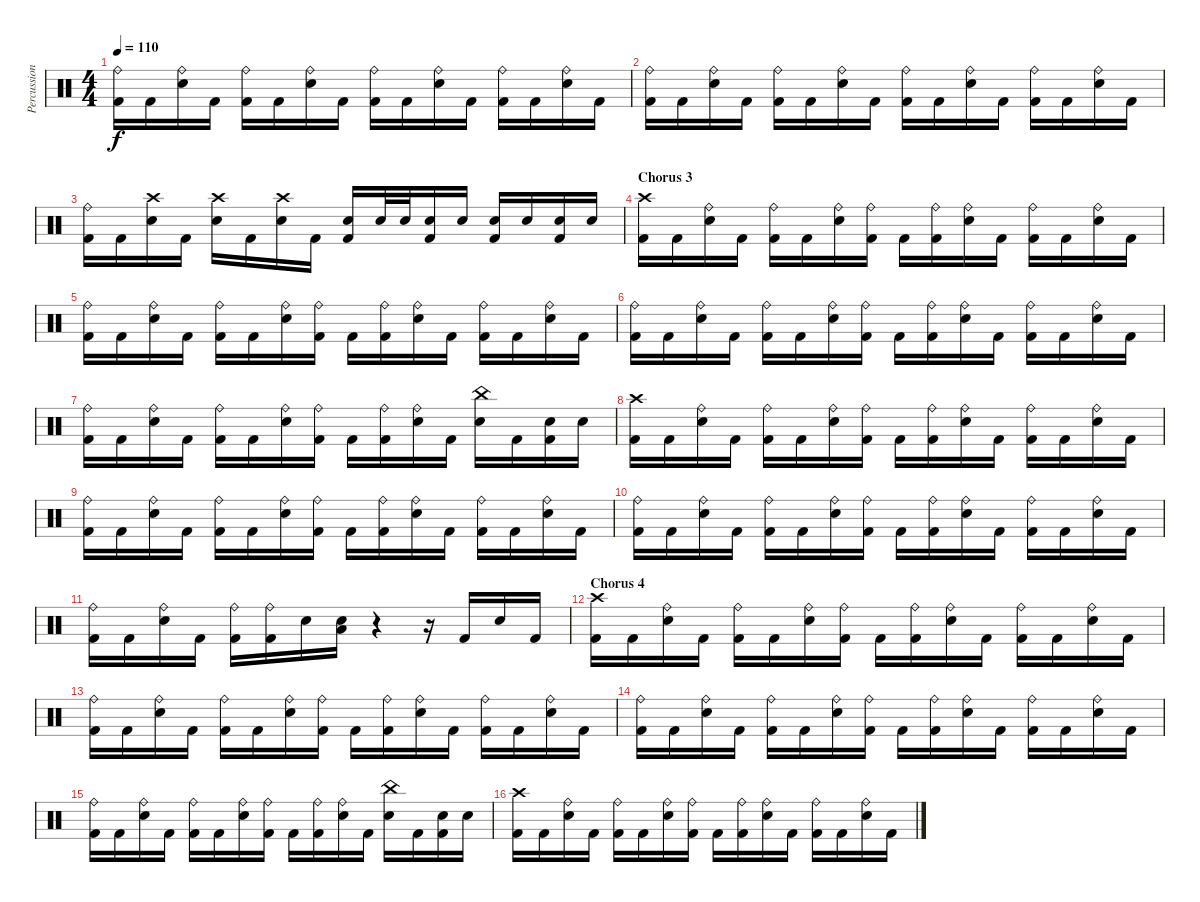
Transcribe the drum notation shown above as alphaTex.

\track ("Percussion" "Percussion") {instrument percussion}
\staff {score}
\articulation defaults
\ts (4 4)
\tempo 110
\clef neutral
\ks c
("Kick (hit) 2" "Ride (bell)").16{dy f} "Kick (hit) 2".16 ("Electric Snare (hit)" "Ride (bell)").16 "Kick (hit) 2".16 ("Kick (hit) 2" "Ride (bell)").16 "Kick (hit) 2".16 ("Electric Snare (hit)" "Ride (bell)").16 "Kick (hit) 2".16 ("Kick (hit) 2" "Ride (bell)").16 "Kick (hit) 2".16 ("Electric Snare (hit)" "Ride (bell)").16 "Kick (hit) 2".16 ("Kick (hit) 2" "Ride (bell)").16 "Kick (hit) 2".16 ("Electric Snare (hit)" "Ride (bell)").16 "Kick (hit) 2".16 |
("Kick (hit) 2" "Ride (bell)").16 "Kick (hit) 2".16 ("Electric Snare (hit)" "Ride (bell)").16 "Kick (hit) 2".16 ("Kick (hit) 2" "Ride (bell)").16 "Kick (hit) 2".16 ("Electric Snare (hit)" "Ride (bell)").16 "Kick (hit) 2".16 ("Kick (hit) 2" "Ride (bell)").16 "Kick (hit) 2".16 ("Electric Snare (hit)" "Ride (bell)").16 "Kick (hit) 2".16 ("Kick (hit) 2" "Ride (bell)").16 "Kick (hit) 2".16 ("Electric Snare (hit)" "Ride (bell)").16 "Kick (hit) 2".16 |
("Kick (hit) 2" "Ride (bell)").16 "Kick (hit) 2".16 ("Electric Snare (hit)" "Crash high (hit)").16 "Kick (hit) 2".16 ("Electric Snare (hit)" "Crash high (hit)").16 "Kick (hit) 2".16 ("Electric Snare (hit)" "Crash high (hit)").16 "Kick (hit) 2".16 ("Electric Snare (hit)" "Kick (hit) 2").16 "Electric Snare (hit)".32 "Electric Snare (hit)".32 ("Electric Snare (hit)" "Kick (hit) 2").16 "Electric Snare (hit)".16 ("Electric Snare (hit)" "Kick (hit) 2").16 "Electric Snare (hit)".16 ("Electric Snare (hit)" "Kick (hit) 2").16 "Electric Snare (hit)".16 |
\section ("" "Chorus 3")
("Kick (hit) 2" "Crash high (hit)").16 "Kick (hit) 2".16 ("Electric Snare (hit)" "Ride (bell)").16 "Kick (hit) 2".16 ("Kick (hit) 2" "Ride (bell)").16 "Kick (hit) 2".16 ("Electric Snare (hit)" "Ride (bell)").16 ("Kick (hit) 2" "Ride (bell)").16 "Kick (hit) 2".16 ("Kick (hit) 2" "Ride (bell)").16 ("Electric Snare (hit)" "Ride (bell)").16 "Kick (hit) 2".16 ("Kick (hit) 2" "Ride (bell)").16 "Kick (hit) 2".16 ("Electric Snare (hit)" "Ride (bell)").16 "Kick (hit) 2".16 |
("Kick (hit) 2" "Ride (bell)").16 "Kick (hit) 2".16 ("Electric Snare (hit)" "Ride (bell)").16 "Kick (hit) 2".16 ("Kick (hit) 2" "Ride (bell)").16 "Kick (hit) 2".16 ("Electric Snare (hit)" "Ride (bell)").16 ("Kick (hit) 2" "Ride (bell)").16 "Kick (hit) 2".16 ("Kick (hit) 2" "Ride (bell)").16 ("Electric Snare (hit)" "Ride (bell)").16 "Kick (hit) 2".16 ("Kick (hit) 2" "Ride (bell)").16 "Kick (hit) 2".16 ("Electric Snare (hit)" "Ride (bell)").16 "Kick (hit) 2".16 |
("Kick (hit) 2" "Ride (bell)").16 "Kick (hit) 2".16 ("Electric Snare (hit)" "Ride (bell)").16 "Kick (hit) 2".16 ("Kick (hit) 2" "Ride (bell)").16 "Kick (hit) 2".16 ("Electric Snare (hit)" "Ride (bell)").16 ("Kick (hit) 2" "Ride (bell)").16 "Kick (hit) 2".16 ("Kick (hit) 2" "Ride (bell)").16 ("Electric Snare (hit)" "Ride (bell)").16 "Kick (hit) 2".16 ("Kick (hit) 2" "Ride (bell)").16 "Kick (hit) 2".16 ("Electric Snare (hit)" "Ride (bell)").16 "Kick (hit) 2".16 |
("Kick (hit) 2" "Ride (bell)").16 "Kick (hit) 2".16 ("Electric Snare (hit)" "Ride (bell)").16 "Kick (hit) 2".16 ("Kick (hit) 2" "Ride (bell)").16 "Kick (hit) 2".16 ("Electric Snare (hit)" "Ride (bell)").16 ("Kick (hit) 2" "Ride (bell)").16 "Kick (hit) 2".16 ("Kick (hit) 2" "Ride (bell)").16 ("Electric Snare (hit)" "Ride (bell)").16 "Kick (hit) 2".16 ("Electric Snare (hit)" "China (hit)").16 "Kick (hit) 2".16 ("Electric Snare (hit)" "Kick (hit) 2").16 "Electric Snare (hit)".16 |
("Kick (hit) 2" "Crash high (hit)").16 "Kick (hit) 2".16 ("Electric Snare (hit)" "Ride (bell)").16 "Kick (hit) 2".16 ("Kick (hit) 2" "Ride (bell)").16 "Kick (hit) 2".16 ("Electric Snare (hit)" "Ride (bell)").16 ("Kick (hit) 2" "Ride (bell)").16 "Kick (hit) 2".16 ("Kick (hit) 2" "Ride (bell)").16 ("Electric Snare (hit)" "Ride (bell)").16 "Kick (hit) 2".16 ("Kick (hit) 2" "Ride (bell)").16 "Kick (hit) 2".16 ("Electric Snare (hit)" "Ride (bell)").16 "Kick (hit) 2".16 |
("Kick (hit) 2" "Ride (bell)").16 "Kick (hit) 2".16 ("Electric Snare (hit)" "Ride (bell)").16 "Kick (hit) 2".16 ("Kick (hit) 2" "Ride (bell)").16 "Kick (hit) 2".16 ("Electric Snare (hit)" "Ride (bell)").16 ("Kick (hit) 2" "Ride (bell)").16 "Kick (hit) 2".16 ("Kick (hit) 2" "Ride (bell)").16 ("Electric Snare (hit)" "Ride (bell)").16 "Kick (hit) 2".16 ("Kick (hit) 2" "Ride (bell)").16 "Kick (hit) 2".16 ("Electric Snare (hit)" "Ride (bell)").16 "Kick (hit) 2".16 |
("Kick (hit) 2" "Ride (bell)").16 "Kick (hit) 2".16 ("Electric Snare (hit)" "Ride (bell)").16 "Kick (hit) 2".16 ("Kick (hit) 2" "Ride (bell)").16 "Kick (hit) 2".16 ("Electric Snare (hit)" "Ride (bell)").16 ("Kick (hit) 2" "Ride (bell)").16 "Kick (hit) 2".16 ("Kick (hit) 2" "Ride (bell)").16 ("Electric Snare (hit)" "Ride (bell)").16 "Kick (hit) 2".16 ("Kick (hit) 2" "Ride (bell)").16 "Kick (hit) 2".16 ("Electric Snare (hit)" "Ride (bell)").16 "Kick (hit) 2".16 |
("Kick (hit) 2" "Ride (bell)").16 "Kick (hit) 2".16 ("Electric Snare (hit)" "Ride (bell)").16 "Kick (hit) 2".16 ("Kick (hit) 2" "Ride (bell)").16 ("Kick (hit) 2" "Ride (bell)").16 "Electric Snare (hit)".16 ("Electric Snare (hit)" "Low Tom (hit)").16 r.4 r.16 "Kick (hit) 2".16 "Electric Snare (hit)".16 "Kick (hit) 2".16 |
\section ("" "Chorus 4")
("Kick (hit) 2" "Crash high (hit)").16 "Kick (hit) 2".16 ("Electric Snare (hit)" "Ride (bell)").16 "Kick (hit) 2".16 ("Kick (hit) 2" "Ride (bell)").16 "Kick (hit) 2".16 ("Electric Snare (hit)" "Ride (bell)").16 ("Kick (hit) 2" "Ride (bell)").16 "Kick (hit) 2".16 ("Kick (hit) 2" "Ride (bell)").16 ("Electric Snare (hit)" "Ride (bell)").16 "Kick (hit) 2".16 ("Kick (hit) 2" "Ride (bell)").16 "Kick (hit) 2".16 ("Electric Snare (hit)" "Ride (bell)").16 "Kick (hit) 2".16 |
("Kick (hit) 2" "Ride (bell)").16 "Kick (hit) 2".16 ("Electric Snare (hit)" "Ride (bell)").16 "Kick (hit) 2".16 ("Kick (hit) 2" "Ride (bell)").16 "Kick (hit) 2".16 ("Electric Snare (hit)" "Ride (bell)").16 ("Kick (hit) 2" "Ride (bell)").16 "Kick (hit) 2".16 ("Kick (hit) 2" "Ride (bell)").16 ("Electric Snare (hit)" "Ride (bell)").16 "Kick (hit) 2".16 ("Kick (hit) 2" "Ride (bell)").16 "Kick (hit) 2".16 ("Electric Snare (hit)" "Ride (bell)").16 "Kick (hit) 2".16 |
("Kick (hit) 2" "Ride (bell)").16 "Kick (hit) 2".16 ("Electric Snare (hit)" "Ride (bell)").16 "Kick (hit) 2".16 ("Kick (hit) 2" "Ride (bell)").16 "Kick (hit) 2".16 ("Electric Snare (hit)" "Ride (bell)").16 ("Kick (hit) 2" "Ride (bell)").16 "Kick (hit) 2".16 ("Kick (hit) 2" "Ride (bell)").16 ("Electric Snare (hit)" "Ride (bell)").16 "Kick (hit) 2".16 ("Kick (hit) 2" "Ride (bell)").16 "Kick (hit) 2".16 ("Electric Snare (hit)" "Ride (bell)").16 "Kick (hit) 2".16 |
("Kick (hit) 2" "Ride (bell)").16 "Kick (hit) 2".16 ("Electric Snare (hit)" "Ride (bell)").16 "Kick (hit) 2".16 ("Kick (hit) 2" "Ride (bell)").16 "Kick (hit) 2".16 ("Electric Snare (hit)" "Ride (bell)").16 ("Kick (hit) 2" "Ride (bell)").16 "Kick (hit) 2".16 ("Kick (hit) 2" "Ride (bell)").16 ("Electric Snare (hit)" "Ride (bell)").16 "Kick (hit) 2".16 ("Electric Snare (hit)" "China (hit)").16 "Kick (hit) 2".16 ("Electric Snare (hit)" "Kick (hit) 2").16 "Electric Snare (hit)".16 |
("Kick (hit) 2" "Crash high (hit)").16 "Kick (hit) 2".16 ("Electric Snare (hit)" "Ride (bell)").16 "Kick (hit) 2".16 ("Kick (hit) 2" "Ride (bell)").16 "Kick (hit) 2".16 ("Electric Snare (hit)" "Ride (bell)").16 ("Kick (hit) 2" "Ride (bell)").16 "Kick (hit) 2".16 ("Kick (hit) 2" "Ride (bell)").16 ("Electric Snare (hit)" "Ride (bell)").16 "Kick (hit) 2".16 ("Kick (hit) 2" "Ride (bell)").16 "Kick (hit) 2".16 ("Electric Snare (hit)" "Ride (bell)").16 "Kick (hit) 2".16
